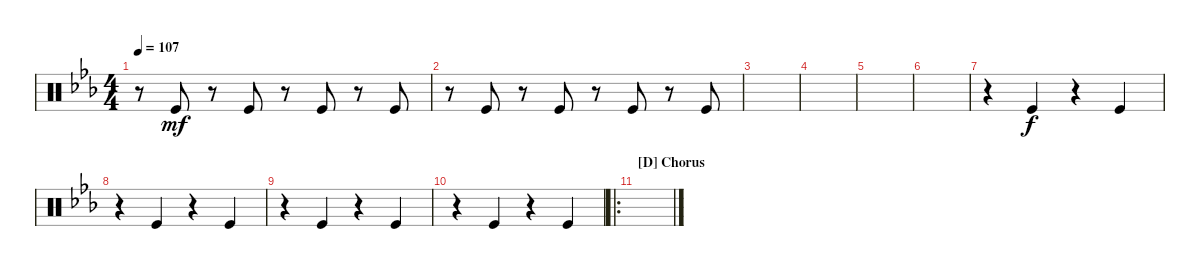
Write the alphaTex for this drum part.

\defaultSystemsLayout 4
\bracketExtendMode groupsimilarinstruments
\singleTrackTrackNamePolicy hidden
\firstSystemTrackNameOrientation horizontal
\otherSystemsTrackNameOrientation horizontal
\chordDiagramsInScore
\track ("Hand Clap" "H-Clap") {instrument percussion}
\staff {score}
\articulation defaults
\ts (4 4)
\tempo 107
\clef neutral
\ks cminor
r.8{dy mf} "Kick (hit)".8 r.8 "Kick (hit)".8 r.8 "Kick (hit)".8 r.8 "Kick (hit)".8 |
r.8 "Kick (hit)".8 r.8 "Kick (hit)".8 r.8 "Kick (hit)".8 r.8 "Kick (hit)".8 |
|
|
|
|
r.4 "Kick (hit)".4{dy f} r.4 "Kick (hit)".4 |
r.4 "Kick (hit)".4 r.4 "Kick (hit)".4 |
r.4 "Kick (hit)".4 r.4 "Kick (hit)".4 |
r.4 "Kick (hit)".4 r.4 "Kick (hit)".4 |
\ro
\section ("D" "Chorus")
\scale
0.335864 |
\scale
0.249784 |
\scale
0.207207 |
\scale
0.207207
